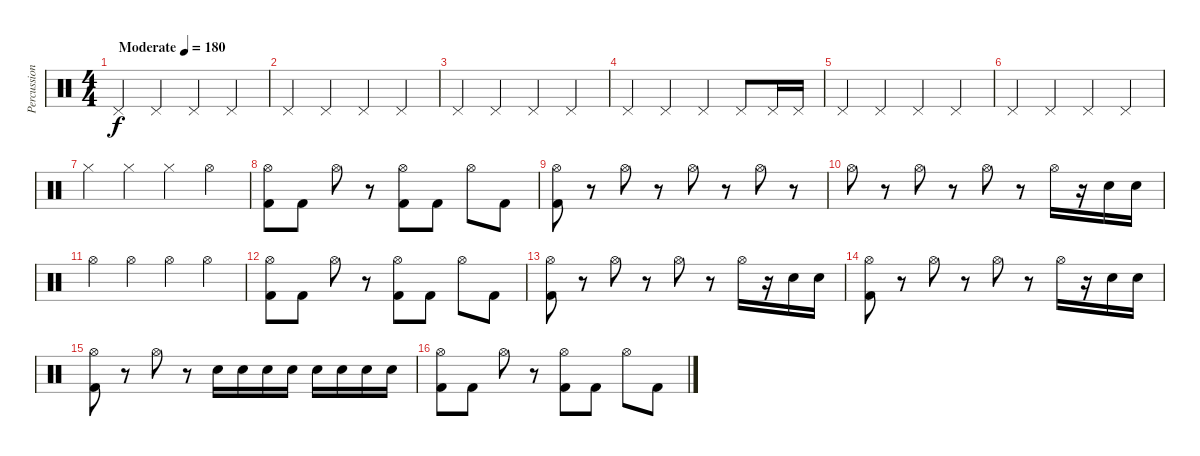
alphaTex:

\track ("Percussions" "Percussion") {instrument percussion}
\staff {score}
\articulation defaults
\ts (4 4)
\tempo (180 "Moderate")
\clef neutral
\ks c "Pedal Hi-Hat (hit)".4{dy f} "Pedal Hi-Hat (hit)".4 "Pedal Hi-Hat (hit)".4 "Pedal Hi-Hat (hit)".4
|
"Pedal Hi-Hat (hit)".4 "Pedal Hi-Hat (hit)".4 "Pedal Hi-Hat (hit)".4 "Pedal Hi-Hat (hit)".4 |
"Pedal Hi-Hat (hit)".4 "Pedal Hi-Hat (hit)".4 "Pedal Hi-Hat (hit)".4 "Pedal Hi-Hat (hit)".4 |
"Pedal Hi-Hat (hit)".4 "Pedal Hi-Hat (hit)".4 "Pedal Hi-Hat (hit)".4 "Pedal Hi-Hat (hit)".8 "Pedal Hi-Hat (hit)".16 "Pedal Hi-Hat (hit)".16 |
"Pedal Hi-Hat (hit)".4 "Pedal Hi-Hat (hit)".4 "Pedal Hi-Hat (hit)".4 "Pedal Hi-Hat (hit)".4 |
"Pedal Hi-Hat (hit)".4 "Pedal Hi-Hat (hit)".4 "Pedal Hi-Hat (hit)".4 "Pedal Hi-Hat (hit)".4 |
"Hi-Hat (closed)".4 "Hi-Hat (closed)".4 "Hi-Hat (closed)".4 "Hi-Hat (open)".4 |
("Hi-Hat (open)" "Kick (hit) 2").8 "Kick (hit) 2".8 "Hi-Hat (open)".8 r.8 ("Hi-Hat (open)" "Kick (hit) 2").8 "Kick (hit) 2".8 "Hi-Hat (open)".8 "Kick (hit) 2".8 |
("Hi-Hat (open)" "Kick (hit) 2").8 r.8 "Hi-Hat (open)".8 r.8 "Hi-Hat (open)".8 r.8 "Hi-Hat (open)".8 r.8 |
"Hi-Hat (open)".8 r.8 "Hi-Hat (open)".8 r.8 "Hi-Hat (open)".8 r.8 "Hi-Hat (open)".16 r.16 "Snare (hit) 2".16 "Snare (hit) 2".16 |
"Hi-Hat (open)".4 "Hi-Hat (open)".4 "Hi-Hat (open)".4 "Hi-Hat (open)".4 |
("Hi-Hat (open)" "Kick (hit) 2").8 "Kick (hit) 2".8 "Hi-Hat (open)".8 r.8 ("Hi-Hat (open)" "Kick (hit) 2").8 "Kick (hit) 2".8 "Hi-Hat (open)".8 "Kick (hit) 2".8 |
("Hi-Hat (open)" "Kick (hit) 2").8 r.8 "Hi-Hat (open)".8 r.8 "Hi-Hat (open)".8 r.8 "Hi-Hat (open)".16 r.16 "Snare (hit) 2".16 "Snare (hit) 2".16 |
("Hi-Hat (open)" "Kick (hit) 2").8 r.8 "Hi-Hat (open)".8 r.8 "Hi-Hat (open)".8 r.8 "Hi-Hat (open)".16 r.16 "Snare (hit) 2".16 "Snare (hit) 2".16 |
("Hi-Hat (open)" "Kick (hit) 2").8 r.8 "Hi-Hat (open)".8 r.8 "Snare (hit) 2".16 "Snare (hit) 2".16 "Snare (hit) 2".16 "Snare (hit) 2".16 "Snare (hit) 2".16 "Snare (hit) 2".16 "Snare (hit) 2".16 "Snare (hit) 2".16 |
("Hi-Hat (open)" "Kick (hit) 2").8 "Kick (hit) 2".8 "Hi-Hat (open)".8 r.8 ("Hi-Hat (open)" "Kick (hit) 2").8 "Kick (hit) 2".8 "Hi-Hat (open)".8 "Kick (hit) 2".8
